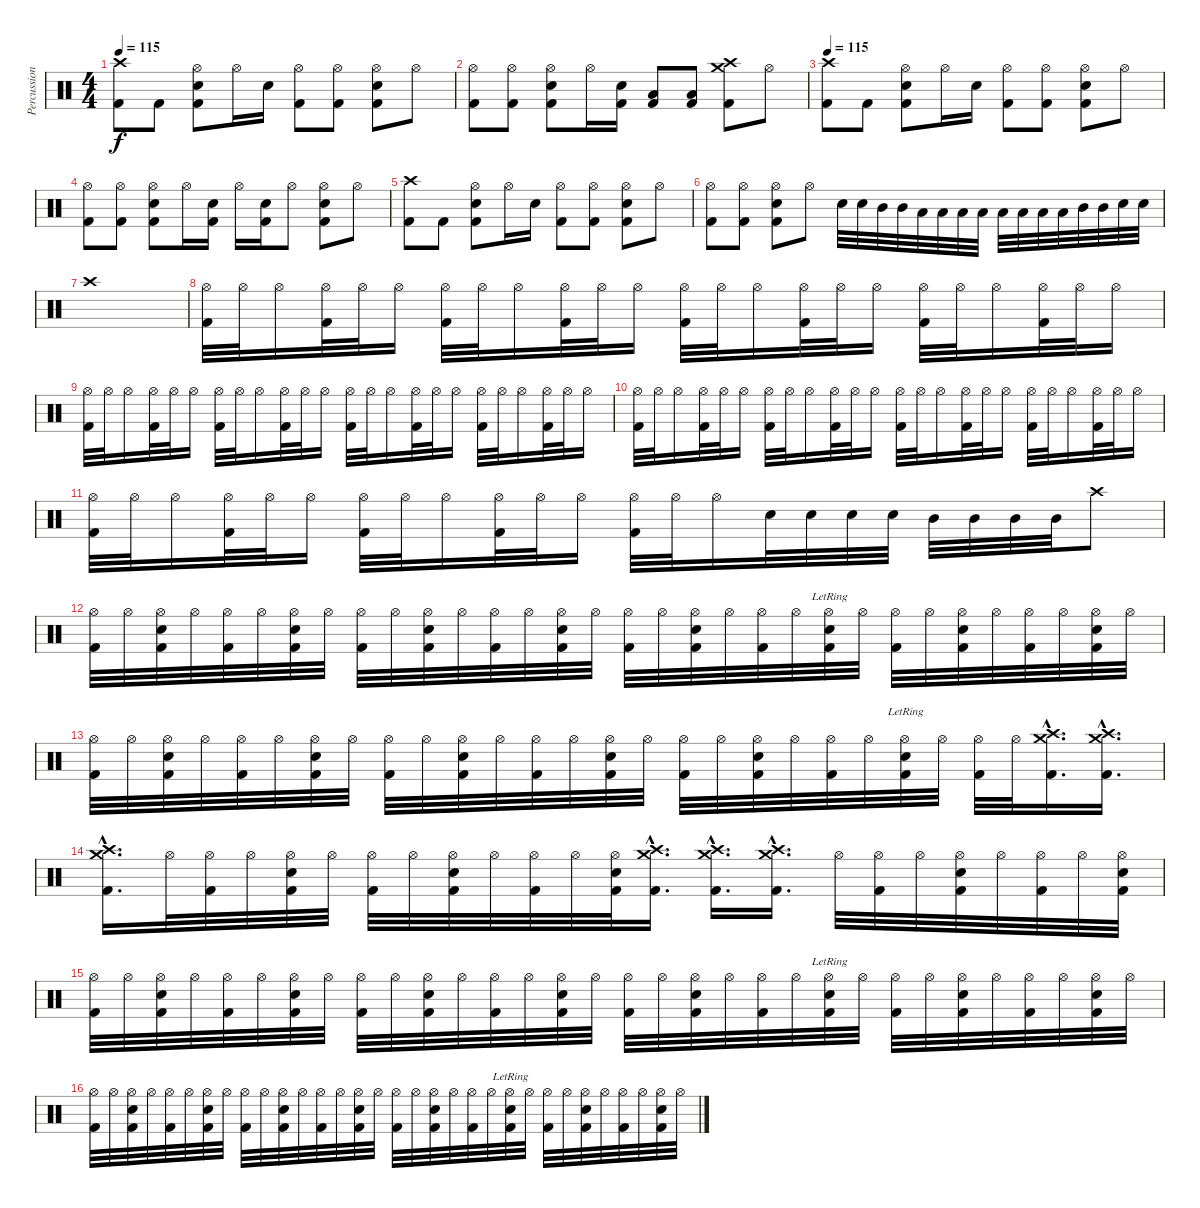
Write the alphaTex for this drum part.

\track ("Percussion" "Percussion") {instrument percussion}
\staff {score}
\articulation defaults
\ts (4 4)
\tempo 115
\clef neutral
\ks c
("Crash high (hit)" "Kick (hit) 2").8{dy f} "Kick (hit) 2".8 ("Hi-Hat (open)" "Kick (hit) 2" "Snare (hit) 2").8 "Hi-Hat (open)".16 "Snare (hit) 2".16 ("Hi-Hat (open)" "Kick (hit) 2").8 ("Hi-Hat (open)" "Kick (hit) 2").8 ("Hi-Hat (open)" "Kick (hit) 2" "Snare (hit) 2").8 "Hi-Hat (open)".8 |
("Hi-Hat (open)" "Kick (hit) 2").8 ("Hi-Hat (open)" "Kick (hit) 2").8 ("Hi-Hat (open)" "Kick (hit) 2" "Snare (hit) 2").8 "Hi-Hat (open)".16 ("Kick (hit) 2" "Snare (hit) 2").16 ("Low Floor Tom (hit)" "Kick (hit) 2").8 ("Low Floor Tom (hit)" "Kick (hit) 2").8 ("Crash medium (hit)" "Crash high (hit)" "Kick (hit) 2").8 "Hi-Hat (open)".8 |
\tempo 115
("Crash high (hit)" "Kick (hit) 2").8 "Kick (hit) 2".8 ("Hi-Hat (open)" "Kick (hit) 2" "Snare (hit) 2").8 "Hi-Hat (open)".16 "Snare (hit) 2".16 ("Hi-Hat (open)" "Kick (hit) 2").8 ("Hi-Hat (open)" "Kick (hit) 2").8 ("Hi-Hat (open)" "Kick (hit) 2" "Snare (hit) 2").8 "Hi-Hat (open)".8 |
("Hi-Hat (open)" "Kick (hit) 2").8 ("Hi-Hat (open)" "Kick (hit) 2").8 ("Hi-Hat (open)" "Kick (hit) 2" "Snare (hit) 2").8 "Hi-Hat (open)".16 ("Kick (hit) 2" "Snare (hit) 2").16 "Hi-Hat (open)".16 ("Kick (hit) 2" "Snare (hit) 2").16 "Hi-Hat (open)".8 ("Hi-Hat (open)" "Kick (hit) 2" "Snare (hit) 2").8 "Hi-Hat (open)".8 |
("Crash high (hit)" "Kick (hit) 2").8 "Kick (hit) 2".8 ("Hi-Hat (open)" "Kick (hit) 2" "Snare (hit) 2").8 "Hi-Hat (open)".16 "Snare (hit) 2".16 ("Hi-Hat (open)" "Kick (hit) 2").8 ("Hi-Hat (open)" "Kick (hit) 2").8 ("Hi-Hat (open)" "Kick (hit) 2" "Snare (hit) 2").8 "Hi-Hat (open)".8 |
("Hi-Hat (open)" "Kick (hit) 2").8 ("Hi-Hat (open)" "Kick (hit) 2").8 ("Hi-Hat (open)" "Kick (hit) 2" "Snare (hit) 2").8 "Hi-Hat (open)".8 "Snare (hit) 2".32 "Snare (hit) 2".32 "Mid Tom (hit)".32 "Mid Tom (hit)".32 "Low Tom (hit)".32 "Low Tom (hit)".32 "Low Floor Tom (hit)".32 "Low Floor Tom (hit)".32 "Low Floor Tom (hit)".32 "Low Floor Tom (hit)".32 "Low Tom (hit)".32 "Low Tom (hit)".32 "Mid Tom (hit)".32 "Mid Tom (hit)".32 "Snare (hit) 2".32 "Snare (hit) 2".32 |
"Crash high (hit)".1 |
("Hi-Hat (open)" "Kick (hit) 2").32 "Hi-Hat (open)".32 "Hi-Hat (open)".16 ("Hi-Hat (open)" "Kick (hit) 2").32 "Hi-Hat (open)".32 "Hi-Hat (open)".16 ("Hi-Hat (open)" "Kick (hit) 2").32 "Hi-Hat (open)".32 "Hi-Hat (open)".16 ("Hi-Hat (open)" "Kick (hit) 2").32 "Hi-Hat (open)".32 "Hi-Hat (open)".16 ("Hi-Hat (open)" "Kick (hit) 2").32 "Hi-Hat (open)".32 "Hi-Hat (open)".16 ("Hi-Hat (open)" "Kick (hit) 2").32 "Hi-Hat (open)".32 "Hi-Hat (open)".16 ("Hi-Hat (open)" "Kick (hit) 2").32 "Hi-Hat (open)".32 "Hi-Hat (open)".16 ("Hi-Hat (open)" "Kick (hit) 2").32 "Hi-Hat (open)".32 "Hi-Hat (open)".16 |
("Hi-Hat (open)" "Kick (hit) 2").32 "Hi-Hat (open)".32 "Hi-Hat (open)".16 ("Hi-Hat (open)" "Kick (hit) 2").32 "Hi-Hat (open)".32 "Hi-Hat (open)".16 ("Hi-Hat (open)" "Kick (hit) 2").32 "Hi-Hat (open)".32 "Hi-Hat (open)".16 ("Hi-Hat (open)" "Kick (hit) 2").32 "Hi-Hat (open)".32 "Hi-Hat (open)".16 ("Hi-Hat (open)" "Kick (hit) 2").32 "Hi-Hat (open)".32 "Hi-Hat (open)".16 ("Hi-Hat (open)" "Kick (hit) 2").32 "Hi-Hat (open)".32 "Hi-Hat (open)".16 ("Hi-Hat (open)" "Kick (hit) 2").32 "Hi-Hat (open)".32 "Hi-Hat (open)".16 ("Hi-Hat (open)" "Kick (hit) 2").32 "Hi-Hat (open)".32 "Hi-Hat (open)".16 |
("Hi-Hat (open)" "Kick (hit) 2").32 "Hi-Hat (open)".32 "Hi-Hat (open)".16 ("Hi-Hat (open)" "Kick (hit) 2").32 "Hi-Hat (open)".32 "Hi-Hat (open)".16 ("Hi-Hat (open)" "Kick (hit) 2").32 "Hi-Hat (open)".32 "Hi-Hat (open)".16 ("Hi-Hat (open)" "Kick (hit) 2").32 "Hi-Hat (open)".32 "Hi-Hat (open)".16 ("Hi-Hat (open)" "Kick (hit) 2").32 "Hi-Hat (open)".32 "Hi-Hat (open)".16 ("Hi-Hat (open)" "Kick (hit) 2").32 "Hi-Hat (open)".32 "Hi-Hat (open)".16 ("Hi-Hat (open)" "Kick (hit) 2").32 "Hi-Hat (open)".32 "Hi-Hat (open)".16 ("Hi-Hat (open)" "Kick (hit) 2").32 "Hi-Hat (open)".32 "Hi-Hat (open)".16 |
("Hi-Hat (open)" "Kick (hit) 2").32 "Hi-Hat (open)".32 "Hi-Hat (open)".16 ("Hi-Hat (open)" "Kick (hit) 2").32 "Hi-Hat (open)".32 "Hi-Hat (open)".16 ("Hi-Hat (open)" "Kick (hit) 2").32 "Hi-Hat (open)".32 "Hi-Hat (open)".16 ("Hi-Hat (open)" "Kick (hit) 2").32 "Hi-Hat (open)".32 "Hi-Hat (open)".16 ("Hi-Hat (open)" "Kick (hit) 2").32 "Hi-Hat (open)".32 "Hi-Hat (open)".16 "Snare (hit) 2".32 "Snare (hit) 2".32 "Snare (hit) 2".32 "Snare (hit) 2".32 "Mid Tom (hit)".32 "Mid Tom (hit)".32 "Mid Tom (hit)".32 "Mid Tom (hit)".32 "Crash high (hit)".8 |
("Hi-Hat (open)" "Kick (hit) 2").32 "Hi-Hat (open)".32 ("Hi-Hat (open)" "Kick (hit) 2" "Snare (hit) 2").32 "Hi-Hat (open)".32 ("Hi-Hat (open)" "Kick (hit) 2").32 "Hi-Hat (open)".32 ("Hi-Hat (open)" "Kick (hit) 2" "Snare (hit) 2").32 "Hi-Hat (open)".32 ("Hi-Hat (open)" "Kick (hit) 2").32 "Hi-Hat (open)".32 ("Hi-Hat (open)" "Kick (hit) 2" "Snare (hit) 2").32 "Hi-Hat (open)".32 ("Hi-Hat (open)" "Kick (hit) 2").32 "Hi-Hat (open)".32 ("Hi-Hat (open)" "Kick (hit) 2" "Snare (hit) 2").32 "Hi-Hat (open)".32 ("Hi-Hat (open)" "Kick (hit) 2").32 "Hi-Hat (open)".32 ("Hi-Hat (open)" "Kick (hit) 2" "Snare (hit) 2").32 "Hi-Hat (open)".32 ("Hi-Hat (open)" "Kick (hit) 2").32 "Hi-Hat (open)".32 ("Hi-Hat (open)" "Kick (hit) 2" "Snare (hit) 2"{lr}).32 "Hi-Hat (open)".32 ("Hi-Hat (open)" "Kick (hit) 2").32 "Hi-Hat (open)".32 ("Hi-Hat (open)" "Kick (hit) 2" "Snare (hit) 2").32 "Hi-Hat (open)".32 ("Hi-Hat (open)" "Kick (hit) 2").32 "Hi-Hat (open)".32 ("Hi-Hat (open)" "Kick (hit) 2" "Snare (hit) 2").32 "Hi-Hat (open)".32 |
("Hi-Hat (open)" "Kick (hit) 2").32 "Hi-Hat (open)".32 ("Hi-Hat (open)" "Kick (hit) 2" "Snare (hit) 2").32 "Hi-Hat (open)".32 ("Hi-Hat (open)" "Kick (hit) 2").32 "Hi-Hat (open)".32 ("Hi-Hat (open)" "Kick (hit) 2" "Snare (hit) 2").32 "Hi-Hat (open)".32 ("Hi-Hat (open)" "Kick (hit) 2").32 "Hi-Hat (open)".32 ("Hi-Hat (open)" "Kick (hit) 2" "Snare (hit) 2").32 "Hi-Hat (open)".32 ("Hi-Hat (open)" "Kick (hit) 2").32 "Hi-Hat (open)".32 ("Hi-Hat (open)" "Kick (hit) 2" "Snare (hit) 2").32 "Hi-Hat (open)".32 ("Hi-Hat (open)" "Kick (hit) 2").32 "Hi-Hat (open)".32 ("Hi-Hat (open)" "Kick (hit) 2" "Snare (hit) 2").32 "Hi-Hat (open)".32 ("Hi-Hat (open)" "Kick (hit) 2").32 "Hi-Hat (open)".32 ("Hi-Hat (open)" "Kick (hit) 2" "Snare (hit) 2"{lr}).32 "Hi-Hat (open)".32 ("Hi-Hat (open)" "Kick (hit) 2").32 "Hi-Hat (open)".32 ("Crash medium (hit)"{hac} "Crash high (hit)"{hac} "Kick (hit) 2"{hac}).16{d} ("Crash medium (hit)"{hac} "Crash high (hit)"{hac} "Kick (hit) 2"{hac}).16{d} |
("Crash medium (hit)"{hac} "Crash high (hit)"{hac} "Kick (hit) 2"{hac}).16{d} "Hi-Hat (open)".32 ("Hi-Hat (open)" "Kick (hit) 2").32 "Hi-Hat (open)".32 ("Hi-Hat (open)" "Kick (hit) 2" "Snare (hit) 2").32 "Hi-Hat (open)".32 ("Hi-Hat (open)" "Kick (hit) 2").32 "Hi-Hat (open)".32 ("Hi-Hat (open)" "Kick (hit) 2" "Snare (hit) 2").32 "Hi-Hat (open)".32 ("Hi-Hat (open)" "Kick (hit) 2").32 "Hi-Hat (open)".32 ("Hi-Hat (open)" "Kick (hit) 2" "Snare (hit) 2").32 ("Crash medium (hit)"{hac} "Crash high (hit)"{hac} "Kick (hit) 2"{hac}).16{d} ("Crash medium (hit)"{hac} "Crash high (hit)"{hac} "Kick (hit) 2"{hac}).16{d} ("Crash medium (hit)"{hac} "Crash high (hit)"{hac} "Kick (hit) 2"{hac}).16{d} "Hi-Hat (open)".32 ("Hi-Hat (open)" "Kick (hit) 2").32 "Hi-Hat (open)".32 ("Hi-Hat (open)" "Kick (hit) 2" "Snare (hit) 2").32 "Hi-Hat (open)".32 ("Hi-Hat (open)" "Kick (hit) 2").32 "Hi-Hat (open)".32 ("Hi-Hat (open)" "Kick (hit) 2" "Snare (hit) 2").32 |
("Hi-Hat (open)" "Kick (hit) 2").32 "Hi-Hat (open)".32 ("Hi-Hat (open)" "Kick (hit) 2" "Snare (hit) 2").32 "Hi-Hat (open)".32 ("Hi-Hat (open)" "Kick (hit) 2").32 "Hi-Hat (open)".32 ("Hi-Hat (open)" "Kick (hit) 2" "Snare (hit) 2").32 "Hi-Hat (open)".32 ("Hi-Hat (open)" "Kick (hit) 2").32 "Hi-Hat (open)".32 ("Hi-Hat (open)" "Kick (hit) 2" "Snare (hit) 2").32 "Hi-Hat (open)".32 ("Hi-Hat (open)" "Kick (hit) 2").32 "Hi-Hat (open)".32 ("Hi-Hat (open)" "Kick (hit) 2" "Snare (hit) 2").32 "Hi-Hat (open)".32 ("Hi-Hat (open)" "Kick (hit) 2").32 "Hi-Hat (open)".32 ("Hi-Hat (open)" "Kick (hit) 2" "Snare (hit) 2").32 "Hi-Hat (open)".32 ("Hi-Hat (open)" "Kick (hit) 2").32 "Hi-Hat (open)".32 ("Hi-Hat (open)" "Kick (hit) 2" "Snare (hit) 2"{lr}).32 "Hi-Hat (open)".32 ("Hi-Hat (open)" "Kick (hit) 2").32 "Hi-Hat (open)".32 ("Hi-Hat (open)" "Kick (hit) 2" "Snare (hit) 2").32 "Hi-Hat (open)".32 ("Hi-Hat (open)" "Kick (hit) 2").32 "Hi-Hat (open)".32 ("Hi-Hat (open)" "Kick (hit) 2" "Snare (hit) 2").32 "Hi-Hat (open)".32 |
("Hi-Hat (open)" "Kick (hit) 2").32 "Hi-Hat (open)".32 ("Hi-Hat (open)" "Kick (hit) 2" "Snare (hit) 2").32 "Hi-Hat (open)".32 ("Hi-Hat (open)" "Kick (hit) 2").32 "Hi-Hat (open)".32 ("Hi-Hat (open)" "Kick (hit) 2" "Snare (hit) 2").32 "Hi-Hat (open)".32 ("Hi-Hat (open)" "Kick (hit) 2").32 "Hi-Hat (open)".32 ("Hi-Hat (open)" "Kick (hit) 2" "Snare (hit) 2").32 "Hi-Hat (open)".32 ("Hi-Hat (open)" "Kick (hit) 2").32 "Hi-Hat (open)".32 ("Hi-Hat (open)" "Kick (hit) 2" "Snare (hit) 2").32 "Hi-Hat (open)".32 ("Hi-Hat (open)" "Kick (hit) 2").32 "Hi-Hat (open)".32 ("Hi-Hat (open)" "Kick (hit) 2" "Snare (hit) 2").32 "Hi-Hat (open)".32 ("Hi-Hat (open)" "Kick (hit) 2").32 "Hi-Hat (open)".32 ("Hi-Hat (open)" "Kick (hit) 2" "Snare (hit) 2"{lr}).32 "Hi-Hat (open)".32 ("Hi-Hat (open)" "Kick (hit) 2").32 "Hi-Hat (open)".32 ("Hi-Hat (open)" "Kick (hit) 2" "Snare (hit) 2").32 "Hi-Hat (open)".32 ("Hi-Hat (open)" "Kick (hit) 2").32 "Hi-Hat (open)".32 ("Hi-Hat (open)" "Kick (hit) 2" "Snare (hit) 2").32 "Hi-Hat (open)".32
